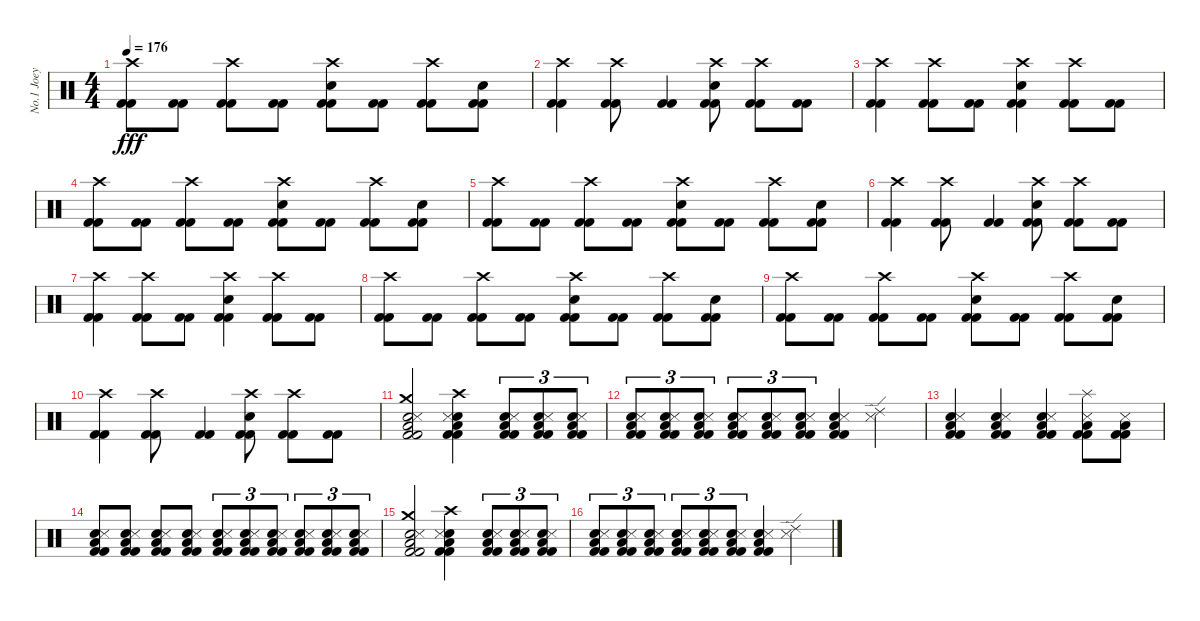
\track ("No.1 Joey" "No.1 Joey") {instrument percussion}
\staff {score}
\articulation defaults
\ts (4 4)
\tempo 176
\clef neutral
\ks c
("Crash high (hit)" "Kick (hit) 2" "Kick (hit) 2").8{dy fff} ("Kick (hit) 2" "Kick (hit) 2").8 ("Crash high (hit)" "Kick (hit) 2" "Kick (hit) 2").8 ("Kick (hit) 2" "Kick (hit) 2").8 ("Electric Snare (hit)" "Crash high (hit)" "Kick (hit) 2" "Kick (hit) 2").8 ("Kick (hit) 2" "Kick (hit) 2").8 ("Crash high (hit)" "Kick (hit) 2" "Kick (hit) 2").8 ("Electric Snare (hit)" "Kick (hit) 2" "Kick (hit) 2").8 |
("Crash high (hit)" "Kick (hit) 2" "Kick (hit) 2").4 ("Crash high (hit)" "Kick (hit) 2" "Kick (hit) 2").8 ("Kick (hit) 2" "Kick (hit) 2").4 ("Electric Snare (hit)" "Crash high (hit)" "Kick (hit) 2" "Kick (hit) 2").8 ("Crash high (hit)" "Kick (hit) 2" "Kick (hit) 2").8 ("Kick (hit) 2" "Kick (hit) 2").8 |
("Crash high (hit)" "Kick (hit) 2" "Kick (hit) 2").4 ("Crash high (hit)" "Kick (hit) 2" "Kick (hit) 2").8 ("Kick (hit) 2" "Kick (hit) 2").8 ("Electric Snare (hit)" "Crash high (hit)" "Kick (hit) 2" "Kick (hit) 2").4 ("Crash high (hit)" "Kick (hit) 2" "Kick (hit) 2").8 ("Kick (hit) 2" "Kick (hit) 2").8 |
("Crash high (hit)" "Kick (hit) 2" "Kick (hit) 2").8 ("Kick (hit) 2" "Kick (hit) 2").8 ("Crash high (hit)" "Kick (hit) 2" "Kick (hit) 2").8 ("Kick (hit) 2" "Kick (hit) 2").8 ("Electric Snare (hit)" "Crash high (hit)" "Kick (hit) 2" "Kick (hit) 2").8 ("Kick (hit) 2" "Kick (hit) 2").8 ("Crash high (hit)" "Kick (hit) 2" "Kick (hit) 2").8 ("Electric Snare (hit)" "Kick (hit) 2" "Kick (hit) 2").8 |
("Crash high (hit)" "Kick (hit) 2" "Kick (hit) 2").8 ("Kick (hit) 2" "Kick (hit) 2").8 ("Crash high (hit)" "Kick (hit) 2" "Kick (hit) 2").8 ("Kick (hit) 2" "Kick (hit) 2").8 ("Electric Snare (hit)" "Crash high (hit)" "Kick (hit) 2" "Kick (hit) 2").8 ("Kick (hit) 2" "Kick (hit) 2").8 ("Crash high (hit)" "Kick (hit) 2" "Kick (hit) 2").8 ("Electric Snare (hit)" "Kick (hit) 2" "Kick (hit) 2").8 |
("Crash high (hit)" "Kick (hit) 2" "Kick (hit) 2").4 ("Crash high (hit)" "Kick (hit) 2" "Kick (hit) 2").8 ("Kick (hit) 2" "Kick (hit) 2").4 ("Electric Snare (hit)" "Crash high (hit)" "Kick (hit) 2" "Kick (hit) 2").8 ("Crash high (hit)" "Kick (hit) 2" "Kick (hit) 2").8 ("Kick (hit) 2" "Kick (hit) 2").8 |
("Crash high (hit)" "Kick (hit) 2" "Kick (hit) 2").4 ("Crash high (hit)" "Kick (hit) 2" "Kick (hit) 2").8 ("Kick (hit) 2" "Kick (hit) 2").8 ("Electric Snare (hit)" "Crash high (hit)" "Kick (hit) 2" "Kick (hit) 2").4 ("Crash high (hit)" "Kick (hit) 2" "Kick (hit) 2").8 ("Kick (hit) 2" "Kick (hit) 2").8 |
("Crash high (hit)" "Kick (hit) 2" "Kick (hit) 2").8 ("Kick (hit) 2" "Kick (hit) 2").8 ("Crash high (hit)" "Kick (hit) 2" "Kick (hit) 2").8 ("Kick (hit) 2" "Kick (hit) 2").8 ("Electric Snare (hit)" "Crash high (hit)" "Kick (hit) 2" "Kick (hit) 2").8 ("Kick (hit) 2" "Kick (hit) 2").8 ("Crash high (hit)" "Kick (hit) 2" "Kick (hit) 2").8 ("Electric Snare (hit)" "Kick (hit) 2" "Kick (hit) 2").8 |
("Crash high (hit)" "Kick (hit) 2" "Kick (hit) 2").8 ("Kick (hit) 2" "Kick (hit) 2").8 ("Crash high (hit)" "Kick (hit) 2" "Kick (hit) 2").8 ("Kick (hit) 2" "Kick (hit) 2").8 ("Electric Snare (hit)" "Crash high (hit)" "Kick (hit) 2" "Kick (hit) 2").8 ("Kick (hit) 2" "Kick (hit) 2").8 ("Crash high (hit)" "Kick (hit) 2" "Kick (hit) 2").8 ("Electric Snare (hit)" "Kick (hit) 2" "Kick (hit) 2").8 |
("Crash high (hit)" "Kick (hit) 2" "Kick (hit) 2").4 ("Crash high (hit)" "Kick (hit) 2" "Kick (hit) 2").8 ("Kick (hit) 2" "Kick (hit) 2").4 ("Electric Snare (hit)" "Crash high (hit)" "Kick (hit) 2" "Kick (hit) 2").8 ("Crash high (hit)" "Kick (hit) 2" "Kick (hit) 2").8 ("Kick (hit) 2" "Kick (hit) 2").8 |
("Electric Snare (hit)" "Crash medium (hit)" "Snare (side stick) 3" "Low Floor Tom (hit)" "Kick (hit) 2" "Kick (hit) 2").2{volume 16} ("Electric Snare (hit)" "Crash high (hit)" "Snare (side stick) 3" "Low Floor Tom (hit)" "Kick (hit) 2" "Kick (hit) 2").4 ("Snare (hit) 2" "Snare (side stick) 3" "Low Floor Tom (hit)" "Kick (hit) 2" "Kick (hit) 2").8{tu (3 2)} ("Snare (hit) 2" "Snare (side stick) 3" "Low Floor Tom (hit)" "Kick (hit) 2" "Kick (hit) 2").8{tu (3 2)} ("Snare (hit) 2" "Snare (side stick) 3" "Low Floor Tom (hit)" "Kick (hit) 2" "Kick (hit) 2").8{tu (3 2)} |
("Snare (hit) 2" "Snare (side stick) 3" "Low Floor Tom (hit)" "Kick (hit) 2" "Kick (hit) 2").8{tu (3 2)} ("Snare (hit) 2" "Snare (side stick) 3" "Low Floor Tom (hit)" "Kick (hit) 2" "Kick (hit) 2").8{tu (3 2)} ("Snare (hit) 2" "Snare (side stick) 3" "Low Floor Tom (hit)" "Kick (hit) 2" "Kick (hit) 2").8{tu (3 2)} ("Snare (hit) 2" "Snare (side stick) 3" "Low Floor Tom (hit)" "Kick (hit) 2" "Kick (hit) 2").8{tu (3 2)} ("Snare (hit) 2" "Snare (side stick) 3" "Low Floor Tom (hit)" "Kick (hit) 2" "Kick (hit) 2").8{tu (3 2)} ("Snare (hit) 2" "Snare (side stick) 3" "Low Floor Tom (hit)" "Kick (hit) 2" "Kick (hit) 2").8{tu (3 2)} ("Snare (hit) 2" "Snare (side stick) 3" "Low Floor Tom (hit)" "Kick (hit) 2" "Kick (hit) 2").4 ("Ride (edge) 2" "Snare (side stick) 3").4 |
("Electric Snare (hit)" "Snare (side stick) 3" "Low Floor Tom (hit)" "Kick (hit) 2" "Kick (hit) 2").4 ("Electric Snare (hit)" "Snare (side stick) 3" "Low Floor Tom (hit)" "Kick (hit) 2" "Kick (hit) 2").4 ("Electric Snare (hit)" "Snare (side stick) 3" "Low Floor Tom (hit)" "Kick (hit) 2" "Kick (hit) 2").4 ("Splash (hit)" "Snare (side stick) 3" "Low Floor Tom (hit)" "Kick (hit) 2" "Kick (hit) 2").8 ("Snare (side stick) 3" "Low Floor Tom (hit)" "Kick (hit) 2" "Kick (hit) 2").8 |
("Snare (hit) 2" "Snare (side stick) 3" "Low Floor Tom (hit)" "Kick (hit) 2" "Kick (hit) 2").8 ("Snare (hit) 2" "Snare (side stick) 3" "Low Floor Tom (hit)" "Kick (hit) 2" "Kick (hit) 2").8 ("Snare (hit) 2" "Snare (side stick) 3" "Low Floor Tom (hit)" "Kick (hit) 2" "Kick (hit) 2").8 ("Snare (hit) 2" "Snare (side stick) 3" "Low Floor Tom (hit)" "Kick (hit) 2" "Kick (hit) 2").8 ("Snare (hit) 2" "Snare (side stick) 3" "Low Floor Tom (hit)" "Kick (hit) 2" "Kick (hit) 2").8{tu (3 2)} ("Snare (hit) 2" "Snare (side stick) 3" "Low Floor Tom (hit)" "Kick (hit) 2" "Kick (hit) 2").8{tu (3 2)} ("Snare (hit) 2" "Snare (side stick) 3" "Low Floor Tom (hit)" "Kick (hit) 2" "Kick (hit) 2").8{tu (3 2)} ("Snare (hit) 2" "Snare (side stick) 3" "Low Floor Tom (hit)" "Kick (hit) 2" "Kick (hit) 2").8{tu (3 2)} ("Snare (hit) 2" "Snare (side stick) 3" "Low Floor Tom (hit)" "Kick (hit) 2" "Kick (hit) 2").8{tu (3 2)} ("Snare (hit) 2" "Snare (side stick) 3" "Low Floor Tom (hit)" "Kick (hit) 2" "Kick (hit) 2").8{tu (3 2)} |
("Electric Snare (hit)" "Crash medium (hit)" "Snare (side stick) 3" "Low Floor Tom (hit)" "Kick (hit) 2" "Kick (hit) 2").2 ("Electric Snare (hit)" "Crash high (hit)" "Snare (side stick) 3" "Low Floor Tom (hit)" "Kick (hit) 2" "Kick (hit) 2").4 ("Snare (hit) 2" "Snare (side stick) 3" "Low Floor Tom (hit)" "Kick (hit) 2" "Kick (hit) 2").8{tu (3 2)} ("Snare (hit) 2" "Snare (side stick) 3" "Low Floor Tom (hit)" "Kick (hit) 2" "Kick (hit) 2").8{tu (3 2)} ("Snare (hit) 2" "Snare (side stick) 3" "Low Floor Tom (hit)" "Kick (hit) 2" "Kick (hit) 2").8{tu (3 2)} |
("Snare (hit) 2" "Snare (side stick) 3" "Low Floor Tom (hit)" "Kick (hit) 2" "Kick (hit) 2").8{tu (3 2)} ("Snare (hit) 2" "Snare (side stick) 3" "Low Floor Tom (hit)" "Kick (hit) 2" "Kick (hit) 2").8{tu (3 2)} ("Snare (hit) 2" "Snare (side stick) 3" "Low Floor Tom (hit)" "Kick (hit) 2" "Kick (hit) 2").8{tu (3 2)} ("Snare (hit) 2" "Snare (side stick) 3" "Low Floor Tom (hit)" "Kick (hit) 2" "Kick (hit) 2").8{tu (3 2)} ("Snare (hit) 2" "Snare (side stick) 3" "Low Floor Tom (hit)" "Kick (hit) 2" "Kick (hit) 2").8{tu (3 2)} ("Snare (hit) 2" "Snare (side stick) 3" "Low Floor Tom (hit)" "Kick (hit) 2" "Kick (hit) 2").8{tu (3 2)} ("Snare (hit) 2" "Snare (side stick) 3" "Low Floor Tom (hit)" "Kick (hit) 2" "Kick (hit) 2").4 ("Ride (edge) 2" "Snare (side stick) 3").4
